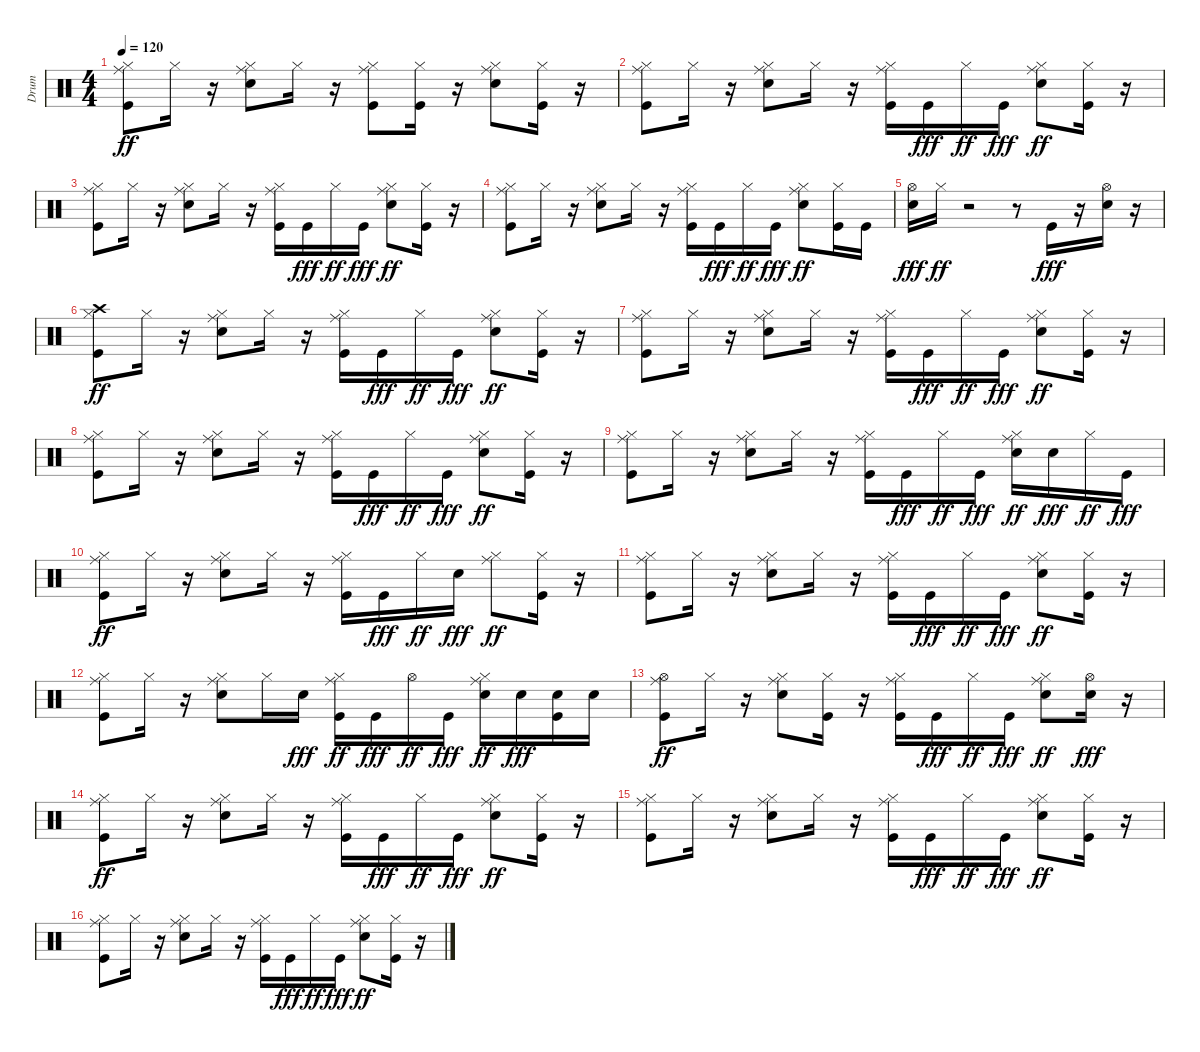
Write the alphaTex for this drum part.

\track ("Drum" "Drum") {instrument percussion}
\staff {score}
\articulation defaults
\ts (4 4)
\tempo 120
\clef neutral
\ks c
("Kick (hit)" "Hi-Hat (closed)" "Ride (middle)").8{dy ff} "Hi-Hat (closed)".16 r.16 ("Electric Snare (hit)" "Hi-Hat (closed)" "Ride (middle)").8 "Hi-Hat (closed)".16 r.16 ("Kick (hit)" "Hi-Hat (closed)" "Ride (middle)").8 ("Kick (hit)" "Hi-Hat (closed)").16 r.16 ("Electric Snare (hit)" "Hi-Hat (closed)" "Ride (middle)").8 ("Kick (hit)" "Hi-Hat (closed)").16 r.16 |
("Kick (hit)" "Hi-Hat (closed)" "Ride (middle)").8 "Hi-Hat (closed)".16 r.16 ("Electric Snare (hit)" "Hi-Hat (closed)" "Ride (middle)").8 "Hi-Hat (closed)".16 r.16 ("Kick (hit)" "Hi-Hat (closed)" "Ride (middle)").16 "Kick (hit)".16{dy fff} "Hi-Hat (closed)".16{dy ff} "Kick (hit)".16{dy fff} ("Electric Snare (hit)" "Hi-Hat (closed)" "Ride (middle)").8{dy ff} ("Kick (hit)" "Hi-Hat (closed)").16 r.16 |
("Kick (hit)" "Hi-Hat (closed)" "Ride (middle)").8 "Hi-Hat (closed)".16 r.16 ("Electric Snare (hit)" "Hi-Hat (closed)" "Ride (middle)").8 "Hi-Hat (closed)".16 r.16 ("Kick (hit)" "Hi-Hat (closed)" "Ride (middle)").16 "Kick (hit)".16{dy fff} "Hi-Hat (closed)".16{dy ff} "Kick (hit)".16{dy fff} ("Electric Snare (hit)" "Hi-Hat (closed)" "Ride (middle)").8{dy ff} ("Kick (hit)" "Hi-Hat (closed)").16 r.16 |
("Kick (hit)" "Hi-Hat (closed)" "Ride (middle)").8 "Hi-Hat (closed)".16 r.16 ("Electric Snare (hit)" "Hi-Hat (closed)" "Ride (middle)").8 "Hi-Hat (closed)".16 r.16 ("Kick (hit)" "Hi-Hat (closed)" "Ride (middle)").16 "Kick (hit)".16{dy fff} "Hi-Hat (closed)".16{dy ff} "Kick (hit)".16{dy fff} ("Electric Snare (hit)" "Hi-Hat (closed)" "Ride (middle)").8{dy ff} ("Kick (hit)" "Hi-Hat (closed)").16 "Kick (hit)".16 |
("Hi-Hat (open)" "Electric Snare (hit)").16{dy fff} "Hi-Hat (closed)".16{dy ff} r.2 r.8 "Kick (hit)".16{dy fff} r.16 ("Hi-Hat (open)" "Electric Snare (hit)").16 r.16 |
("Crash high (hit)" "Kick (hit)" "Hi-Hat (closed)").8{dy ff} "Hi-Hat (closed)".16 r.16 ("Electric Snare (hit)" "Hi-Hat (closed)" "Ride (middle)").8 "Hi-Hat (closed)".16 r.16 ("Kick (hit)" "Hi-Hat (closed)" "Ride (middle)").16 "Kick (hit)".16{dy fff} "Hi-Hat (closed)".16{dy ff} "Kick (hit)".16{dy fff} ("Electric Snare (hit)" "Hi-Hat (closed)" "Ride (middle)").8{dy ff} ("Kick (hit)" "Hi-Hat (closed)").16 r.16 |
("Kick (hit)" "Hi-Hat (closed)" "Ride (middle)").8 "Hi-Hat (closed)".16 r.16 ("Electric Snare (hit)" "Hi-Hat (closed)" "Ride (middle)").8 "Hi-Hat (closed)".16 r.16 ("Kick (hit)" "Hi-Hat (closed)" "Ride (middle)").16 "Kick (hit)".16{dy fff} "Hi-Hat (closed)".16{dy ff} "Kick (hit)".16{dy fff} ("Electric Snare (hit)" "Hi-Hat (closed)" "Ride (middle)").8{dy ff} ("Kick (hit)" "Hi-Hat (closed)").16 r.16 |
("Kick (hit)" "Hi-Hat (closed)" "Ride (middle)").8 "Hi-Hat (closed)".16 r.16 ("Electric Snare (hit)" "Hi-Hat (closed)" "Ride (middle)").8 "Hi-Hat (closed)".16 r.16 ("Kick (hit)" "Hi-Hat (closed)" "Ride (middle)").16 "Kick (hit)".16{dy fff} "Hi-Hat (closed)".16{dy ff} "Kick (hit)".16{dy fff} ("Electric Snare (hit)" "Hi-Hat (closed)" "Ride (middle)").8{dy ff} ("Kick (hit)" "Hi-Hat (closed)").16 r.16 |
("Kick (hit)" "Hi-Hat (closed)" "Ride (middle)").8 "Hi-Hat (closed)".16 r.16 ("Electric Snare (hit)" "Hi-Hat (closed)" "Ride (middle)").8 "Hi-Hat (closed)".16 r.16 ("Kick (hit)" "Hi-Hat (closed)" "Ride (middle)").16 "Kick (hit)".16{dy fff} "Hi-Hat (closed)".16{dy ff} "Kick (hit)".16{dy fff} ("Electric Snare (hit)" "Hi-Hat (closed)" "Ride (middle)").16{dy ff} "Electric Snare (hit)".16{dy fff} "Hi-Hat (closed)".16{dy ff} "Kick (hit)".16{dy fff} |
("Kick (hit)" "Hi-Hat (closed)" "Ride (middle)").8{dy ff} "Hi-Hat (closed)".16 r.16 ("Electric Snare (hit)" "Hi-Hat (closed)" "Ride (middle)").8 "Hi-Hat (closed)".16 r.16 ("Kick (hit)" "Hi-Hat (closed)" "Ride (middle)").16 "Kick (hit)".16{dy fff} "Hi-Hat (closed)".16{dy ff} "Electric Snare (hit)".16{dy fff} ("Hi-Hat (closed)" "Ride (middle)").8{dy ff} ("Kick (hit)" "Hi-Hat (closed)").16 r.16 |
("Kick (hit)" "Hi-Hat (closed)" "Ride (middle)").8 "Hi-Hat (closed)".16 r.16 ("Electric Snare (hit)" "Hi-Hat (closed)" "Ride (middle)").8 "Hi-Hat (closed)".16 r.16 ("Kick (hit)" "Hi-Hat (closed)" "Ride (middle)").16 "Kick (hit)".16{dy fff} "Hi-Hat (closed)".16{dy ff} "Kick (hit)".16{dy fff} ("Electric Snare (hit)" "Hi-Hat (closed)" "Ride (middle)").8{dy ff} ("Kick (hit)" "Hi-Hat (closed)").16 r.16 |
("Kick (hit)" "Hi-Hat (closed)" "Ride (middle)").8 "Hi-Hat (closed)".16 r.16 ("Electric Snare (hit)" "Hi-Hat (closed)" "Ride (middle)").8 "Hi-Hat (closed)".16 "Electric Snare (hit)".16{dy fff} ("Kick (hit)" "Hi-Hat (closed)" "Ride (middle)").16{dy ff} "Kick (hit)".16{dy fff} "Hi-Hat (open)".16{dy ff} "Kick (hit)".16{dy fff} ("Electric Snare (hit)" "Hi-Hat (closed)" "Ride (middle)").16{dy ff} "Electric Snare (hit)".16{dy fff} ("Electric Snare (hit)" "Kick (hit)").16 "Electric Snare (hit)".16 |
("Hi-Hat (open)" "Kick (hit)" "Ride (middle)").8{dy ff} "Hi-Hat (closed)".16 r.16 ("Electric Snare (hit)" "Hi-Hat (closed)" "Ride (middle)").8 ("Kick (hit)" "Hi-Hat (closed)").16 r.16 ("Kick (hit)" "Hi-Hat (closed)" "Ride (middle)").16 "Kick (hit)".16{dy fff} "Hi-Hat (closed)".16{dy ff} "Kick (hit)".16{dy fff} ("Electric Snare (hit)" "Hi-Hat (closed)" "Ride (middle)").8{dy ff} ("Hi-Hat (open)" "Electric Snare (hit)").16{dy fff} r.16 |
("Kick (hit)" "Hi-Hat (closed)" "Ride (middle)").8{dy ff} "Hi-Hat (closed)".16 r.16 ("Electric Snare (hit)" "Hi-Hat (closed)" "Ride (middle)").8 "Hi-Hat (closed)".16 r.16 ("Kick (hit)" "Hi-Hat (closed)" "Ride (middle)").16 "Kick (hit)".16{dy fff} "Hi-Hat (closed)".16{dy ff} "Kick (hit)".16{dy fff} ("Electric Snare (hit)" "Hi-Hat (closed)" "Ride (middle)").8{dy ff} ("Kick (hit)" "Hi-Hat (closed)").16 r.16 |
("Kick (hit)" "Hi-Hat (closed)" "Ride (middle)").8 "Hi-Hat (closed)".16 r.16 ("Electric Snare (hit)" "Hi-Hat (closed)" "Ride (middle)").8 "Hi-Hat (closed)".16 r.16 ("Kick (hit)" "Hi-Hat (closed)" "Ride (middle)").16 "Kick (hit)".16{dy fff} "Hi-Hat (closed)".16{dy ff} "Kick (hit)".16{dy fff} ("Electric Snare (hit)" "Hi-Hat (closed)" "Ride (middle)").8{dy ff} ("Kick (hit)" "Hi-Hat (closed)").16 r.16 |
("Kick (hit)" "Hi-Hat (closed)" "Ride (middle)").8 "Hi-Hat (closed)".16 r.16 ("Electric Snare (hit)" "Hi-Hat (closed)" "Ride (middle)").8 "Hi-Hat (closed)".16 r.16 ("Kick (hit)" "Hi-Hat (closed)" "Ride (middle)").16 "Kick (hit)".16{dy fff} "Hi-Hat (closed)".16{dy ff} "Kick (hit)".16{dy fff} ("Electric Snare (hit)" "Hi-Hat (closed)" "Ride (middle)").8{dy ff} ("Kick (hit)" "Hi-Hat (closed)").16 r.16
